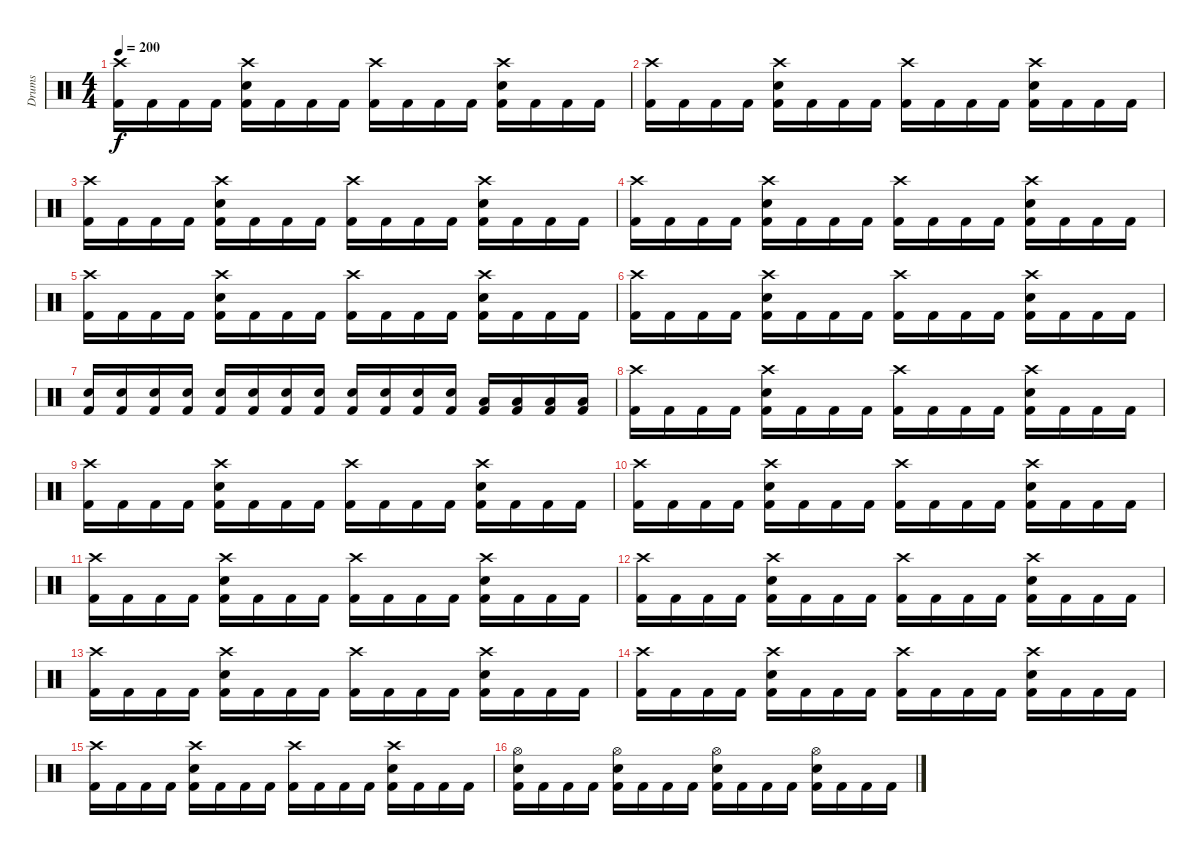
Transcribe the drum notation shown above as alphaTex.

\track ("Drums" "Drums") {instrument percussion}
\staff {score}
\articulation defaults
\ts (4 4)
\tempo 200
\clef neutral
\ks c
("Crash high (hit)" "Kick (hit) 2").16{dy f} "Kick (hit) 2".16 "Kick (hit) 2".16 "Kick (hit) 2".16 ("Crash high (hit)" "Snare (hit) 2" "Kick (hit) 2").16 "Kick (hit) 2".16 "Kick (hit) 2".16 "Kick (hit) 2".16 ("Crash high (hit)" "Kick (hit) 2").16 "Kick (hit) 2".16 "Kick (hit) 2".16 "Kick (hit) 2".16 ("Crash high (hit)" "Snare (hit) 2" "Kick (hit) 2").16 "Kick (hit) 2".16 "Kick (hit) 2".16 "Kick (hit) 2".16 |
("Crash high (hit)" "Kick (hit) 2").16 "Kick (hit) 2".16 "Kick (hit) 2".16 "Kick (hit) 2".16 ("Crash high (hit)" "Snare (hit) 2" "Kick (hit) 2").16 "Kick (hit) 2".16 "Kick (hit) 2".16 "Kick (hit) 2".16 ("Crash high (hit)" "Kick (hit) 2").16 "Kick (hit) 2".16 "Kick (hit) 2".16 "Kick (hit) 2".16 ("Crash high (hit)" "Snare (hit) 2" "Kick (hit) 2").16 "Kick (hit) 2".16 "Kick (hit) 2".16 "Kick (hit) 2".16 |
("Crash high (hit)" "Kick (hit) 2").16 "Kick (hit) 2".16 "Kick (hit) 2".16 "Kick (hit) 2".16 ("Crash high (hit)" "Snare (hit) 2" "Kick (hit) 2").16 "Kick (hit) 2".16 "Kick (hit) 2".16 "Kick (hit) 2".16 ("Crash high (hit)" "Kick (hit) 2").16 "Kick (hit) 2".16 "Kick (hit) 2".16 "Kick (hit) 2".16 ("Crash high (hit)" "Snare (hit) 2" "Kick (hit) 2").16 "Kick (hit) 2".16 "Kick (hit) 2".16 "Kick (hit) 2".16 |
("Crash high (hit)" "Kick (hit) 2").16 "Kick (hit) 2".16 "Kick (hit) 2".16 "Kick (hit) 2".16 ("Crash high (hit)" "Snare (hit) 2" "Kick (hit) 2").16 "Kick (hit) 2".16 "Kick (hit) 2".16 "Kick (hit) 2".16 ("Crash high (hit)" "Kick (hit) 2").16 "Kick (hit) 2".16 "Kick (hit) 2".16 "Kick (hit) 2".16 ("Crash high (hit)" "Snare (hit) 2" "Kick (hit) 2").16 "Kick (hit) 2".16 "Kick (hit) 2".16 "Kick (hit) 2".16 |
("Crash high (hit)" "Kick (hit) 2").16 "Kick (hit) 2".16 "Kick (hit) 2".16 "Kick (hit) 2".16 ("Crash high (hit)" "Snare (hit) 2" "Kick (hit) 2").16 "Kick (hit) 2".16 "Kick (hit) 2".16 "Kick (hit) 2".16 ("Crash high (hit)" "Kick (hit) 2").16 "Kick (hit) 2".16 "Kick (hit) 2".16 "Kick (hit) 2".16 ("Crash high (hit)" "Snare (hit) 2" "Kick (hit) 2").16 "Kick (hit) 2".16 "Kick (hit) 2".16 "Kick (hit) 2".16 |
("Crash high (hit)" "Kick (hit) 2").16 "Kick (hit) 2".16 "Kick (hit) 2".16 "Kick (hit) 2".16 ("Crash high (hit)" "Snare (hit) 2" "Kick (hit) 2").16 "Kick (hit) 2".16 "Kick (hit) 2".16 "Kick (hit) 2".16 ("Crash high (hit)" "Kick (hit) 2").16 "Kick (hit) 2".16 "Kick (hit) 2".16 "Kick (hit) 2".16 ("Crash high (hit)" "Snare (hit) 2" "Kick (hit) 2").16 "Kick (hit) 2".16 "Kick (hit) 2".16 "Kick (hit) 2".16 |
("Snare (hit) 2" "Kick (hit) 2").16 ("Snare (hit) 2" "Kick (hit) 2").16 ("Snare (hit) 2" "Kick (hit) 2").16 ("Snare (hit) 2" "Kick (hit) 2").16 ("Snare (hit) 2" "Kick (hit) 2").16 ("Snare (hit) 2" "Kick (hit) 2").16 ("Snare (hit) 2" "Kick (hit) 2").16 ("Snare (hit) 2" "Kick (hit) 2").16 ("Snare (hit) 2" "Kick (hit) 2").16 ("Snare (hit) 2" "Kick (hit) 2").16 ("Snare (hit) 2" "Kick (hit) 2").16 ("Snare (hit) 2" "Kick (hit) 2").16 ("Low Tom (hit)" "Kick (hit) 2").16 ("Low Tom (hit)" "Kick (hit) 2").16 ("Low Tom (hit)" "Kick (hit) 2").16 ("Low Tom (hit)" "Kick (hit) 2").16 |
("Crash high (hit)" "Kick (hit) 2").16 "Kick (hit) 2".16 "Kick (hit) 2".16 "Kick (hit) 2".16 ("Crash high (hit)" "Snare (hit) 2" "Kick (hit) 2").16 "Kick (hit) 2".16 "Kick (hit) 2".16 "Kick (hit) 2".16 ("Crash high (hit)" "Kick (hit) 2").16 "Kick (hit) 2".16 "Kick (hit) 2".16 "Kick (hit) 2".16 ("Crash high (hit)" "Snare (hit) 2" "Kick (hit) 2").16 "Kick (hit) 2".16 "Kick (hit) 2".16 "Kick (hit) 2".16 |
("Crash high (hit)" "Kick (hit) 2").16 "Kick (hit) 2".16 "Kick (hit) 2".16 "Kick (hit) 2".16 ("Crash high (hit)" "Snare (hit) 2" "Kick (hit) 2").16 "Kick (hit) 2".16 "Kick (hit) 2".16 "Kick (hit) 2".16 ("Crash high (hit)" "Kick (hit) 2").16 "Kick (hit) 2".16 "Kick (hit) 2".16 "Kick (hit) 2".16 ("Crash high (hit)" "Snare (hit) 2" "Kick (hit) 2").16 "Kick (hit) 2".16 "Kick (hit) 2".16 "Kick (hit) 2".16 |
("Crash high (hit)" "Kick (hit) 2").16 "Kick (hit) 2".16 "Kick (hit) 2".16 "Kick (hit) 2".16 ("Crash high (hit)" "Snare (hit) 2" "Kick (hit) 2").16 "Kick (hit) 2".16 "Kick (hit) 2".16 "Kick (hit) 2".16 ("Crash high (hit)" "Kick (hit) 2").16 "Kick (hit) 2".16 "Kick (hit) 2".16 "Kick (hit) 2".16 ("Crash high (hit)" "Snare (hit) 2" "Kick (hit) 2").16 "Kick (hit) 2".16 "Kick (hit) 2".16 "Kick (hit) 2".16 |
("Crash high (hit)" "Kick (hit) 2").16 "Kick (hit) 2".16 "Kick (hit) 2".16 "Kick (hit) 2".16 ("Crash high (hit)" "Snare (hit) 2" "Kick (hit) 2").16 "Kick (hit) 2".16 "Kick (hit) 2".16 "Kick (hit) 2".16 ("Crash high (hit)" "Kick (hit) 2").16 "Kick (hit) 2".16 "Kick (hit) 2".16 "Kick (hit) 2".16 ("Crash high (hit)" "Snare (hit) 2" "Kick (hit) 2").16 "Kick (hit) 2".16 "Kick (hit) 2".16 "Kick (hit) 2".16 |
("Crash high (hit)" "Kick (hit) 2").16 "Kick (hit) 2".16 "Kick (hit) 2".16 "Kick (hit) 2".16 ("Crash high (hit)" "Snare (hit) 2" "Kick (hit) 2").16 "Kick (hit) 2".16 "Kick (hit) 2".16 "Kick (hit) 2".16 ("Crash high (hit)" "Kick (hit) 2").16 "Kick (hit) 2".16 "Kick (hit) 2".16 "Kick (hit) 2".16 ("Crash high (hit)" "Snare (hit) 2" "Kick (hit) 2").16 "Kick (hit) 2".16 "Kick (hit) 2".16 "Kick (hit) 2".16 |
("Crash high (hit)" "Kick (hit) 2").16 "Kick (hit) 2".16 "Kick (hit) 2".16 "Kick (hit) 2".16 ("Crash high (hit)" "Snare (hit) 2" "Kick (hit) 2").16 "Kick (hit) 2".16 "Kick (hit) 2".16 "Kick (hit) 2".16 ("Crash high (hit)" "Kick (hit) 2").16 "Kick (hit) 2".16 "Kick (hit) 2".16 "Kick (hit) 2".16 ("Crash high (hit)" "Snare (hit) 2" "Kick (hit) 2").16 "Kick (hit) 2".16 "Kick (hit) 2".16 "Kick (hit) 2".16 |
("Crash high (hit)" "Kick (hit) 2").16 "Kick (hit) 2".16 "Kick (hit) 2".16 "Kick (hit) 2".16 ("Crash high (hit)" "Snare (hit) 2" "Kick (hit) 2").16 "Kick (hit) 2".16 "Kick (hit) 2".16 "Kick (hit) 2".16 ("Crash high (hit)" "Kick (hit) 2").16 "Kick (hit) 2".16 "Kick (hit) 2".16 "Kick (hit) 2".16 ("Crash high (hit)" "Snare (hit) 2" "Kick (hit) 2").16 "Kick (hit) 2".16 "Kick (hit) 2".16 "Kick (hit) 2".16 |
("Crash high (hit)" "Kick (hit) 2").16 "Kick (hit) 2".16 "Kick (hit) 2".16 "Kick (hit) 2".16 ("Crash high (hit)" "Snare (hit) 2" "Kick (hit) 2").16 "Kick (hit) 2".16 "Kick (hit) 2".16 "Kick (hit) 2".16 ("Crash high (hit)" "Kick (hit) 2").16 "Kick (hit) 2".16 "Kick (hit) 2".16 "Kick (hit) 2".16 ("Crash high (hit)" "Snare (hit) 2" "Kick (hit) 2").16 "Kick (hit) 2".16 "Kick (hit) 2".16 "Kick (hit) 2".16 |
("Hi-Hat (open)" "Snare (hit) 2" "Kick (hit) 2").16 "Kick (hit) 2".16 "Kick (hit) 2".16 "Kick (hit) 2".16 ("Hi-Hat (open)" "Snare (hit) 2" "Kick (hit) 2").16 "Kick (hit) 2".16 "Kick (hit) 2".16 "Kick (hit) 2".16 ("Hi-Hat (open)" "Snare (hit) 2" "Kick (hit) 2").16 "Kick (hit) 2".16 "Kick (hit) 2".16 "Kick (hit) 2".16 ("Hi-Hat (open)" "Snare (hit) 2" "Kick (hit) 2").16 "Kick (hit) 2".16 "Kick (hit) 2".16 "Kick (hit) 2".16
